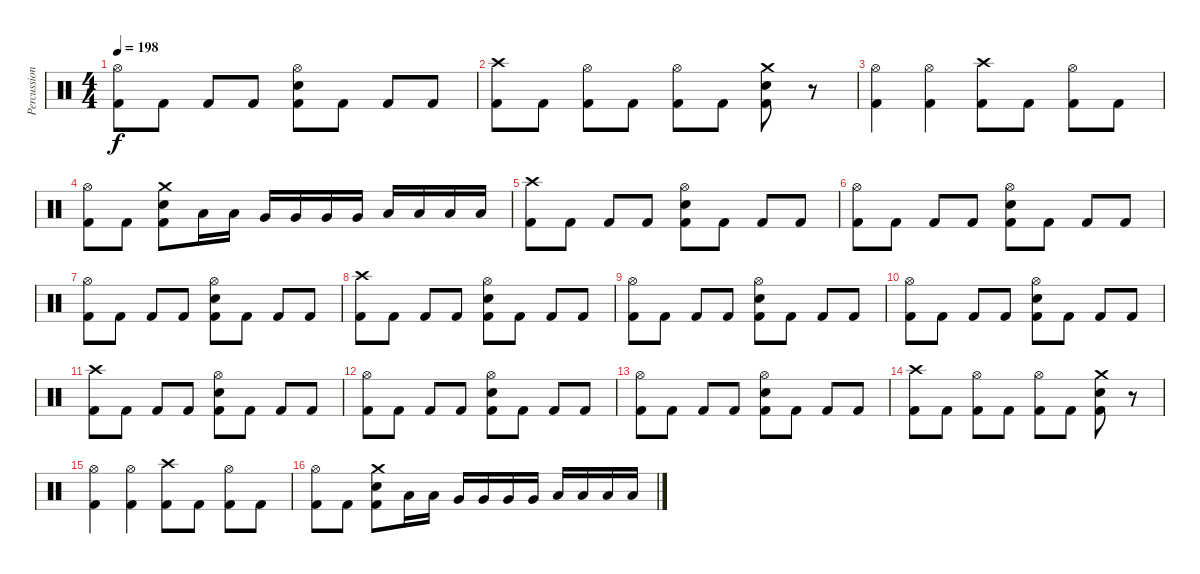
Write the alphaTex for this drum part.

\track ("Percussion" "Percussion") {instrument percussion}
\staff {score}
\articulation defaults
\ts (4 4)
\tempo 198
\clef neutral
\ks c
("Hi-Hat (open)" "Kick (hit) 2").8{dy f} "Kick (hit) 2".8 "Kick (hit) 2".8 "Kick (hit) 2".8 ("Hi-Hat (open)" "Electric Snare (hit)" "Kick (hit) 2").8 "Kick (hit) 2".8 "Kick (hit) 2".8 "Kick (hit) 2".8 |
("Crash high (hit)" "Kick (hit) 2").8 "Kick (hit) 2".8 ("Hi-Hat (open)" "Kick (hit) 2").8 "Kick (hit) 2".8 ("Hi-Hat (open)" "Kick (hit) 2").8 "Kick (hit) 2".8 ("Crash medium (hit)" "Electric Snare (hit)" "Kick (hit) 2").8 r.8 |
("Hi-Hat (open)" "Kick (hit) 2").4 ("Hi-Hat (open)" "Kick (hit) 2").4 ("Crash high (hit)" "Kick (hit) 2").8 "Kick (hit) 2".8 ("Hi-Hat (open)" "Kick (hit) 2").8 "Kick (hit) 2".8 |
("Hi-Hat (open)" "Kick (hit) 2").8 "Kick (hit) 2".8 ("Crash medium (hit)" "Electric Snare (hit)" "Kick (hit) 2").8 "Low Tom (hit)".16 "Low Tom (hit)".16 "Very Low Tom (hit)".16 "Very Low Tom (hit)".16 "Very Low Tom (hit)".16 "Very Low Tom (hit)".16 "Low Floor Tom (hit)".16 "Low Floor Tom (hit)".16 "Low Floor Tom (hit)".16 "Low Floor Tom (hit)".16 |
("Crash high (hit)" "Kick (hit) 2").8 "Kick (hit) 2".8 "Kick (hit) 2".8 "Kick (hit) 2".8 ("Hi-Hat (open)" "Electric Snare (hit)" "Kick (hit) 2").8 "Kick (hit) 2".8 "Kick (hit) 2".8 "Kick (hit) 2".8 |
("Hi-Hat (open)" "Kick (hit) 2").8 "Kick (hit) 2".8 "Kick (hit) 2".8 "Kick (hit) 2".8 ("Hi-Hat (open)" "Electric Snare (hit)" "Kick (hit) 2").8 "Kick (hit) 2".8 "Kick (hit) 2".8 "Kick (hit) 2".8 |
("Hi-Hat (open)" "Kick (hit) 2").8 "Kick (hit) 2".8 "Kick (hit) 2".8 "Kick (hit) 2".8 ("Hi-Hat (open)" "Electric Snare (hit)" "Kick (hit) 2").8 "Kick (hit) 2".8 "Kick (hit) 2".8 "Kick (hit) 2".8 |
("Crash high (hit)" "Kick (hit) 2").8 "Kick (hit) 2".8 "Kick (hit) 2".8 "Kick (hit) 2".8 ("Hi-Hat (open)" "Electric Snare (hit)" "Kick (hit) 2").8 "Kick (hit) 2".8 "Kick (hit) 2".8 "Kick (hit) 2".8 |
("Hi-Hat (open)" "Kick (hit) 2").8 "Kick (hit) 2".8 "Kick (hit) 2".8 "Kick (hit) 2".8 ("Hi-Hat (open)" "Electric Snare (hit)" "Kick (hit) 2").8 "Kick (hit) 2".8 "Kick (hit) 2".8 "Kick (hit) 2".8 |
("Hi-Hat (open)" "Kick (hit) 2").8 "Kick (hit) 2".8 "Kick (hit) 2".8 "Kick (hit) 2".8 ("Hi-Hat (open)" "Electric Snare (hit)" "Kick (hit) 2").8 "Kick (hit) 2".8 "Kick (hit) 2".8 "Kick (hit) 2".8 |
("Crash high (hit)" "Kick (hit) 2").8 "Kick (hit) 2".8 "Kick (hit) 2".8 "Kick (hit) 2".8 ("Hi-Hat (open)" "Electric Snare (hit)" "Kick (hit) 2").8 "Kick (hit) 2".8 "Kick (hit) 2".8 "Kick (hit) 2".8 |
("Hi-Hat (open)" "Kick (hit) 2").8 "Kick (hit) 2".8 "Kick (hit) 2".8 "Kick (hit) 2".8 ("Hi-Hat (open)" "Electric Snare (hit)" "Kick (hit) 2").8 "Kick (hit) 2".8 "Kick (hit) 2".8 "Kick (hit) 2".8 |
("Hi-Hat (open)" "Kick (hit) 2").8 "Kick (hit) 2".8 "Kick (hit) 2".8 "Kick (hit) 2".8 ("Hi-Hat (open)" "Electric Snare (hit)" "Kick (hit) 2").8 "Kick (hit) 2".8 "Kick (hit) 2".8 "Kick (hit) 2".8 |
("Crash high (hit)" "Kick (hit) 2").8 "Kick (hit) 2".8 ("Hi-Hat (open)" "Kick (hit) 2").8 "Kick (hit) 2".8 ("Hi-Hat (open)" "Kick (hit) 2").8 "Kick (hit) 2".8 ("Crash medium (hit)" "Electric Snare (hit)" "Kick (hit) 2").8 r.8 |
("Hi-Hat (open)" "Kick (hit) 2").4 ("Hi-Hat (open)" "Kick (hit) 2").4 ("Crash high (hit)" "Kick (hit) 2").8 "Kick (hit) 2".8 ("Hi-Hat (open)" "Kick (hit) 2").8 "Kick (hit) 2".8 |
("Hi-Hat (open)" "Kick (hit) 2").8 "Kick (hit) 2".8 ("Crash medium (hit)" "Electric Snare (hit)" "Kick (hit) 2").8 "Low Tom (hit)".16 "Low Tom (hit)".16 "Very Low Tom (hit)".16 "Very Low Tom (hit)".16 "Very Low Tom (hit)".16 "Very Low Tom (hit)".16 "Low Floor Tom (hit)".16 "Low Floor Tom (hit)".16 "Low Floor Tom (hit)".16 "Low Floor Tom (hit)".16
